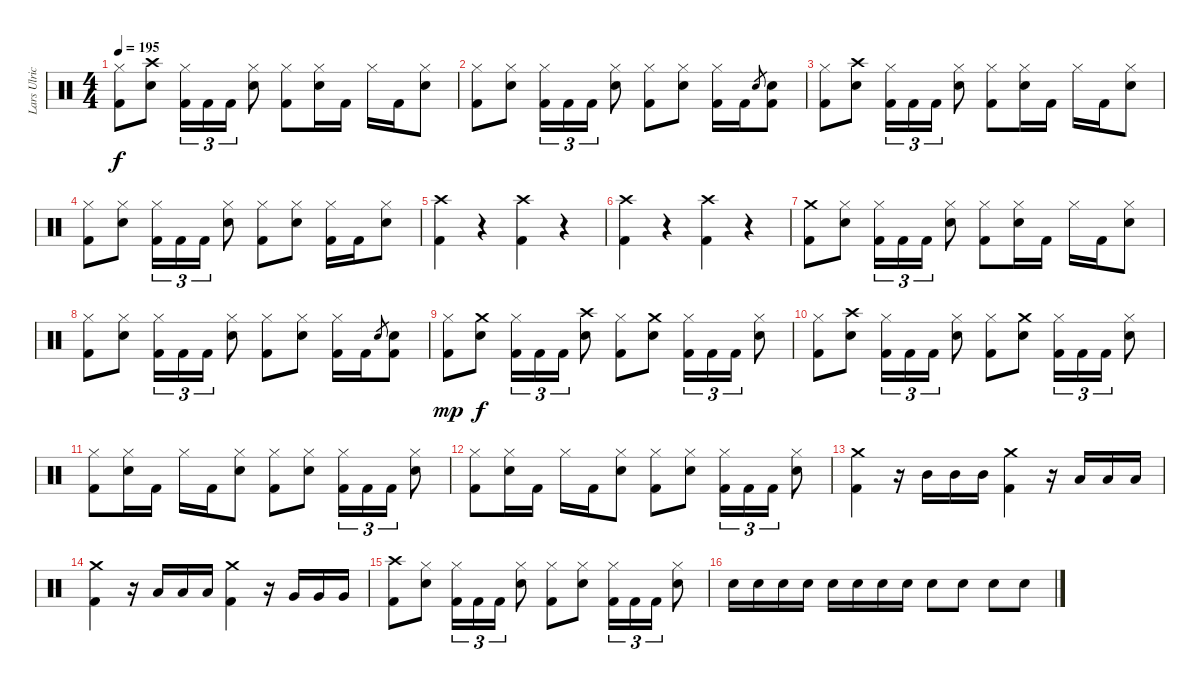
\track ("Lars Ulrich" "Lars Ulric") {instrument percussion}
\staff {score}
\articulation defaults
\ts (4 4)
\tempo 195
\clef neutral
\ks c
("Hi-Hat (closed)" "Kick (hit) 2").8{dy f} ("Crash high (hit)" "Electric Snare (hit)").8 ("Hi-Hat (closed)" "Kick (hit) 2").16{tu (3 2)} "Kick (hit) 2".16{tu (3 2)} "Kick (hit) 2".16{tu (3 2)} ("Hi-Hat (closed)" "Electric Snare (hit)").8 ("Hi-Hat (closed)" "Kick (hit) 2").8 ("Hi-Hat (closed)" "Electric Snare (hit)").16 "Kick (hit) 2".16 "Hi-Hat (closed)".16 "Kick (hit) 2".16 ("Hi-Hat (closed)" "Electric Snare (hit)").8 |
("Hi-Hat (closed)" "Kick (hit) 2").8 ("Hi-Hat (closed)" "Electric Snare (hit)").8 ("Hi-Hat (closed)" "Kick (hit) 2").16{tu (3 2)} "Kick (hit) 2".16{tu (3 2)} "Kick (hit) 2".16{tu (3 2)} ("Hi-Hat (closed)" "Electric Snare (hit)").8 ("Hi-Hat (closed)" "Kick (hit) 2").8 ("Hi-Hat (closed)" "Electric Snare (hit)").8 ("Hi-Hat (closed)" "Kick (hit) 2").16 "Kick (hit) 2".16 "Electric Snare (hit)".8{gr} ("Electric Snare (hit)" "Kick (hit) 2").8 |
("Hi-Hat (closed)" "Kick (hit) 2").8 ("Crash high (hit)" "Electric Snare (hit)").8 ("Hi-Hat (closed)" "Kick (hit) 2").16{tu (3 2)} "Kick (hit) 2".16{tu (3 2)} "Kick (hit) 2".16{tu (3 2)} ("Hi-Hat (closed)" "Electric Snare (hit)").8 ("Hi-Hat (closed)" "Kick (hit) 2").8 ("Hi-Hat (closed)" "Electric Snare (hit)").16 "Kick (hit) 2".16 "Hi-Hat (closed)".16 "Kick (hit) 2".16 ("Hi-Hat (closed)" "Electric Snare (hit)").8 |
("Hi-Hat (closed)" "Kick (hit) 2").8 ("Hi-Hat (closed)" "Electric Snare (hit)").8 ("Hi-Hat (closed)" "Kick (hit) 2").16{tu (3 2)} "Kick (hit) 2".16{tu (3 2)} "Kick (hit) 2".16{tu (3 2)} ("Hi-Hat (closed)" "Electric Snare (hit)").8 ("Hi-Hat (closed)" "Kick (hit) 2").8 ("Hi-Hat (closed)" "Electric Snare (hit)").8 ("Hi-Hat (closed)" "Kick (hit) 2").16 "Kick (hit) 2".16 ("Hi-Hat (closed)" "Electric Snare (hit)").8 |
("Crash high (hit)" "Kick (hit) 2").4 r.4{volume 0} ("Crash high (hit)" "Kick (hit) 2").4{volume 14} r.4{volume 0} |
("Crash high (hit)" "Kick (hit) 2").4{volume 14} r.4{volume 0} ("Crash high (hit)" "Kick (hit) 2").4{volume 14} r.4{volume 0} |
("Crash medium (hit)" "Kick (hit) 2").8{volume 14} ("Hi-Hat (closed)" "Electric Snare (hit)").8 ("Hi-Hat (closed)" "Kick (hit) 2").16{tu (3 2)} "Kick (hit) 2".16{tu (3 2)} "Kick (hit) 2".16{tu (3 2)} ("Hi-Hat (closed)" "Electric Snare (hit)").8 ("Hi-Hat (closed)" "Kick (hit) 2").8 ("Hi-Hat (closed)" "Electric Snare (hit)").16 "Kick (hit) 2".16 "Hi-Hat (closed)".16 "Kick (hit) 2".16 ("Hi-Hat (closed)" "Electric Snare (hit)").8 |
("Hi-Hat (closed)" "Kick (hit) 2").8 ("Hi-Hat (closed)" "Electric Snare (hit)").8 ("Hi-Hat (closed)" "Kick (hit) 2").16{tu (3 2)} "Kick (hit) 2".16{tu (3 2)} "Kick (hit) 2".16{tu (3 2)} ("Hi-Hat (closed)" "Electric Snare (hit)").8 ("Hi-Hat (closed)" "Kick (hit) 2").8 ("Hi-Hat (closed)" "Electric Snare (hit)").8 ("Hi-Hat (closed)" "Kick (hit) 2").16 "Kick (hit) 2".16 "Electric Snare (hit)".8{gr} ("Electric Snare (hit)" "Kick (hit) 2").8 |
("Hi-Hat (closed)" "Kick (hit) 2").8{dy mp} ("Crash medium (hit)" "Electric Snare (hit)").8{dy f} ("Hi-Hat (closed)" "Kick (hit) 2").16{tu (3 2)} "Kick (hit) 2".16{tu (3 2)} "Kick (hit) 2".16{tu (3 2)} ("Crash high (hit)" "Electric Snare (hit)").8 ("Hi-Hat (closed)" "Kick (hit) 2").8 ("Crash medium (hit)" "Electric Snare (hit)").8 ("Hi-Hat (closed)" "Kick (hit) 2").16{tu (3 2)} "Kick (hit) 2".16{tu (3 2)} "Kick (hit) 2".16{tu (3 2)} ("Hi-Hat (closed)" "Electric Snare (hit)").8 |
("Hi-Hat (closed)" "Kick (hit) 2").8 ("Crash high (hit)" "Electric Snare (hit)").8 ("Hi-Hat (closed)" "Kick (hit) 2").16{tu (3 2)} "Kick (hit) 2".16{tu (3 2)} "Kick (hit) 2".16{tu (3 2)} ("Hi-Hat (closed)" "Electric Snare (hit)").8 ("Hi-Hat (closed)" "Kick (hit) 2").8 ("Crash medium (hit)" "Electric Snare (hit)").8 ("Hi-Hat (closed)" "Kick (hit) 2").16{tu (3 2)} "Kick (hit) 2".16{tu (3 2)} "Kick (hit) 2".16{tu (3 2)} ("Hi-Hat (closed)" "Electric Snare (hit)").8 |
("Hi-Hat (closed)" "Kick (hit) 2").8 ("Hi-Hat (closed)" "Electric Snare (hit)").16 "Kick (hit) 2".16 "Hi-Hat (closed)".16 "Kick (hit) 2".16 ("Hi-Hat (closed)" "Electric Snare (hit)").8 ("Hi-Hat (closed)" "Kick (hit) 2").8 ("Hi-Hat (closed)" "Electric Snare (hit)").8 ("Hi-Hat (closed)" "Kick (hit) 2").16{tu (3 2)} "Kick (hit) 2".16{tu (3 2)} "Kick (hit) 2".16{tu (3 2)} ("Hi-Hat (closed)" "Electric Snare (hit)").8 |
("Hi-Hat (closed)" "Kick (hit) 2").8 ("Hi-Hat (closed)" "Electric Snare (hit)").16 "Kick (hit) 2".16 "Hi-Hat (closed)".16 "Kick (hit) 2".16 ("Hi-Hat (closed)" "Electric Snare (hit)").8 ("Hi-Hat (closed)" "Kick (hit) 2").8 ("Hi-Hat (closed)" "Electric Snare (hit)").8 ("Hi-Hat (closed)" "Kick (hit) 2").16{tu (3 2)} "Kick (hit) 2".16{tu (3 2)} "Kick (hit) 2".16{tu (3 2)} ("Hi-Hat (closed)" "Electric Snare (hit)").8 |
("Crash medium (hit)" "Kick (hit) 2").4 r.16 "Mid Tom (hit)".16 "Mid Tom (hit)".16 "Mid Tom (hit)".16 ("Crash medium (hit)" "Kick (hit) 2").4 r.16 "Low Tom (hit)".16 "Low Tom (hit)".16 "Low Tom (hit)".16 |
("Crash medium (hit)" "Kick (hit) 2").4 r.16 "Low Tom (hit)".16 "Low Tom (hit)".16 "Low Tom (hit)".16 ("Crash medium (hit)" "Kick (hit) 2").4 r.16 "Very Low Tom (hit)".16 "Very Low Tom (hit)".16 "Very Low Tom (hit)".16 |
("Crash high (hit)" "Kick (hit) 2").8 ("Hi-Hat (closed)" "Electric Snare (hit)").8 ("Hi-Hat (closed)" "Kick (hit) 2").16{tu (3 2)} "Kick (hit) 2".16{tu (3 2)} "Kick (hit) 2".16{tu (3 2)} ("Hi-Hat (closed)" "Electric Snare (hit)").8 ("Hi-Hat (closed)" "Kick (hit) 2").8 ("Hi-Hat (closed)" "Electric Snare (hit)").8 ("Hi-Hat (closed)" "Kick (hit) 2").16{tu (3 2)} "Kick (hit) 2".16{tu (3 2)} "Kick (hit) 2".16{tu (3 2)} ("Hi-Hat (closed)" "Electric Snare (hit)").8 |
"Electric Snare (hit)".16 "Electric Snare (hit)".16 "Electric Snare (hit)".16 "Electric Snare (hit)".16 "Electric Snare (hit)".16 "Electric Snare (hit)".16 "Electric Snare (hit)".16 "Electric Snare (hit)".16 "Electric Snare (hit)".8 "Electric Snare (hit)".8 "Electric Snare (hit)".8 "Electric Snare (hit)".8
